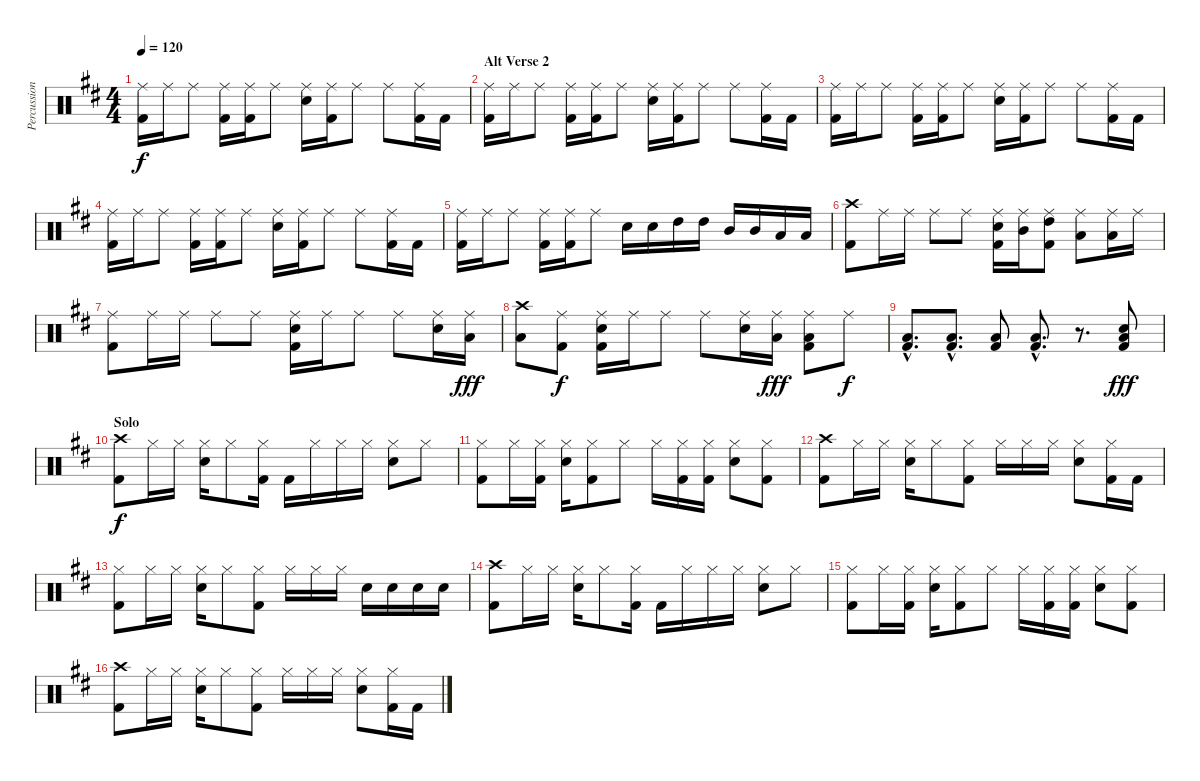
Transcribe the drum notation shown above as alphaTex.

\track ("Percussion" "Percussion") {instrument percussion}
\staff {score}
\articulation defaults
\ts (4 4)
\tempo 120
\clef neutral
\ks d
("Ride (middle)" "Kick (hit) 2").16{dy f} "Ride (middle)".16 "Ride (middle)".8 ("Ride (middle)" "Kick (hit) 2").16 ("Ride (middle)" "Kick (hit) 2").16 "Ride (middle)".8 ("Ride (middle)" "Snare (hit) 2").16 ("Ride (middle)" "Kick (hit) 2").16 "Ride (middle)".8 "Ride (middle)".8 ("Ride (middle)" "Kick (hit) 2").16 "Kick (hit) 2".16 |
\section ("" "Alt Verse 2")
("Ride (middle)" "Kick (hit) 2").16 "Ride (middle)".16 "Ride (middle)".8 ("Ride (middle)" "Kick (hit) 2").16 ("Ride (middle)" "Kick (hit) 2").16 "Ride (middle)".8 ("Ride (middle)" "Snare (hit) 2").16 ("Ride (middle)" "Kick (hit) 2").16 "Ride (middle)".8 "Ride (middle)".8 ("Ride (middle)" "Kick (hit) 2").16 "Kick (hit) 2".16 |
("Ride (middle)" "Kick (hit) 2").16 "Ride (middle)".16 "Ride (middle)".8 ("Ride (middle)" "Kick (hit) 2").16 ("Ride (middle)" "Kick (hit) 2").16 "Ride (middle)".8 ("Ride (middle)" "Snare (hit) 2").16 ("Ride (middle)" "Kick (hit) 2").16 "Ride (middle)".8 "Ride (middle)".8 ("Ride (middle)" "Kick (hit) 2").16 "Kick (hit) 2".16 |
("Ride (middle)" "Kick (hit) 2").16 "Ride (middle)".16 "Ride (middle)".8 ("Ride (middle)" "Kick (hit) 2").16 ("Ride (middle)" "Kick (hit) 2").16 "Ride (middle)".8 ("Ride (middle)" "Snare (hit) 2").16 ("Ride (middle)" "Kick (hit) 2").16 "Ride (middle)".8 "Ride (middle)".8 ("Ride (middle)" "Kick (hit) 2").16 "Kick (hit) 2".16 |
("Ride (middle)" "Kick (hit) 2").16 "Ride (middle)".16 "Ride (middle)".8 ("Ride (middle)" "Kick (hit) 2").16 ("Ride (middle)" "Kick (hit) 2").16 "Ride (middle)".8 "Snare (hit) 2".16 "Snare (hit) 2".16 "High Tom (hit)".16 "High Tom (hit)".16 "Mid Tom (hit)".16 "Mid Tom (hit)".16 "Low Tom (hit)".16 "Low Tom (hit)".16 |
("Crash high (hit)" "Kick (hit) 2").8 "Ride (middle)".16 "Ride (middle)".16 "Ride (middle)".8 "Ride (middle)".8 ("Ride (middle)" "Snare (hit) 2" "Kick (hit) 2").16 ("Ride (middle)" "Mid Tom (hit)").16 ("Ride (middle)" "High Tom (hit)" "Kick (hit) 2").8 ("Ride (middle)" "Low Tom (hit)").8 ("Ride (middle)" "Low Tom (hit)").16 "Ride (middle)".16 |
("Ride (middle)" "Kick (hit) 2").8 "Ride (middle)".16 "Ride (middle)".16 "Ride (middle)".8 "Ride (middle)".8 ("Ride (middle)" "Snare (hit) 2" "Kick (hit) 2").16 "Ride (middle)".16 "Ride (middle)".8 "Ride (middle)".8 ("Ride (middle)" "Snare (hit) 2").16 ("Ride (middle)" "Low Tom (hit)").16{dy fff} |
("Crash high (hit)" "Low Tom (hit)").8 ("Ride (middle)" "Kick (hit) 2").8{dy f} ("Ride (middle)" "Snare (hit) 2" "Kick (hit) 2").16 "Ride (middle)".16 "Ride (middle)".8 "Ride (middle)".8 ("Ride (middle)" "Snare (hit) 2").16 ("Ride (middle)" "Low Tom (hit)").16{dy fff} ("Ride (middle)" "Low Tom (hit)" "Kick (hit) 2").8 "Ride (middle)".8{dy f} |
("Low Tom (hit)"{hac} "Kick (hit) 2"{hac}).8{d} ("Low Tom (hit)"{hac} "Kick (hit) 2"{hac}).8{d} ("Low Tom (hit)" "Kick (hit) 2").8 ("Low Tom (hit)"{hac} "Kick (hit) 2"{hac}).8{d} r.8{d} ("Snare (hit) 2" "Low Tom (hit)" "Kick (hit) 2").8{dy fff} |
\section ("" "Solo")
("Crash high (hit)" "Kick (hit) 2").8{dy f} "Hi-Hat (closed)".16 "Hi-Hat (closed)".16 ("Hi-Hat (closed)" "Snare (hit) 2").16 "Hi-Hat (closed)".8 ("Hi-Hat (closed)" "Kick (hit) 2").16 "Kick (hit) 2".16 "Hi-Hat (closed)".16 "Hi-Hat (closed)".16 "Hi-Hat (closed)".16 ("Hi-Hat (closed)" "Snare (hit) 2").8 "Hi-Hat (closed)".8 |
("Hi-Hat (closed)" "Kick (hit) 2").8 "Hi-Hat (closed)".16 ("Hi-Hat (closed)" "Kick (hit) 2").16 ("Hi-Hat (closed)" "Snare (hit) 2").16 ("Hi-Hat (closed)" "Kick (hit) 2").8 "Hi-Hat (closed)".8 "Hi-Hat (closed)".16 ("Hi-Hat (closed)" "Kick (hit) 2").16 ("Hi-Hat (closed)" "Kick (hit) 2").16 ("Hi-Hat (closed)" "Snare (hit) 2").8 ("Hi-Hat (closed)" "Kick (hit) 2").8 |
("Crash high (hit)" "Kick (hit) 2").8 "Hi-Hat (closed)".16 "Hi-Hat (closed)".16 ("Hi-Hat (closed)" "Snare (hit) 2").16 "Hi-Hat (closed)".8 ("Hi-Hat (closed)" "Kick (hit) 2").8 "Hi-Hat (closed)".16 "Hi-Hat (closed)".16 "Hi-Hat (closed)".16 ("Hi-Hat (closed)" "Snare (hit) 2").8 ("Hi-Hat (closed)" "Kick (hit) 2").16 "Kick (hit) 2".16 |
("Hi-Hat (closed)" "Kick (hit) 2").8 "Hi-Hat (closed)".16 "Hi-Hat (closed)".16 ("Hi-Hat (closed)" "Snare (hit) 2").16 "Hi-Hat (closed)".8 ("Hi-Hat (closed)" "Kick (hit) 2").8 "Hi-Hat (closed)".16 "Hi-Hat (closed)".16 "Hi-Hat (closed)".16 "Snare (hit) 2".16 "Snare (hit) 2".16 "Snare (hit) 2".16 "Snare (hit) 2".16 |
("Crash high (hit)" "Kick (hit) 2").8 "Hi-Hat (closed)".16 "Hi-Hat (closed)".16 ("Hi-Hat (closed)" "Snare (hit) 2").16 "Hi-Hat (closed)".8 ("Hi-Hat (closed)" "Kick (hit) 2").16 "Kick (hit) 2".16 "Hi-Hat (closed)".16 "Hi-Hat (closed)".16 "Hi-Hat (closed)".16 ("Hi-Hat (closed)" "Snare (hit) 2").8 "Hi-Hat (closed)".8 |
("Hi-Hat (closed)" "Kick (hit) 2").8 "Hi-Hat (closed)".16 ("Hi-Hat (closed)" "Kick (hit) 2").16 ("Hi-Hat (closed)" "Snare (hit) 2").16 ("Hi-Hat (closed)" "Kick (hit) 2").8 "Hi-Hat (closed)".8 "Hi-Hat (closed)".16 ("Hi-Hat (closed)" "Kick (hit) 2").16 ("Hi-Hat (closed)" "Kick (hit) 2").16 ("Hi-Hat (closed)" "Snare (hit) 2").8 ("Hi-Hat (closed)" "Kick (hit) 2").8 |
("Crash high (hit)" "Kick (hit) 2").8 "Hi-Hat (closed)".16 "Hi-Hat (closed)".16 ("Hi-Hat (closed)" "Snare (hit) 2").16 "Hi-Hat (closed)".8 ("Hi-Hat (closed)" "Kick (hit) 2").8 "Hi-Hat (closed)".16 "Hi-Hat (closed)".16 "Hi-Hat (closed)".16 ("Hi-Hat (closed)" "Snare (hit) 2").8 ("Hi-Hat (closed)" "Kick (hit) 2").16 "Kick (hit) 2".16
